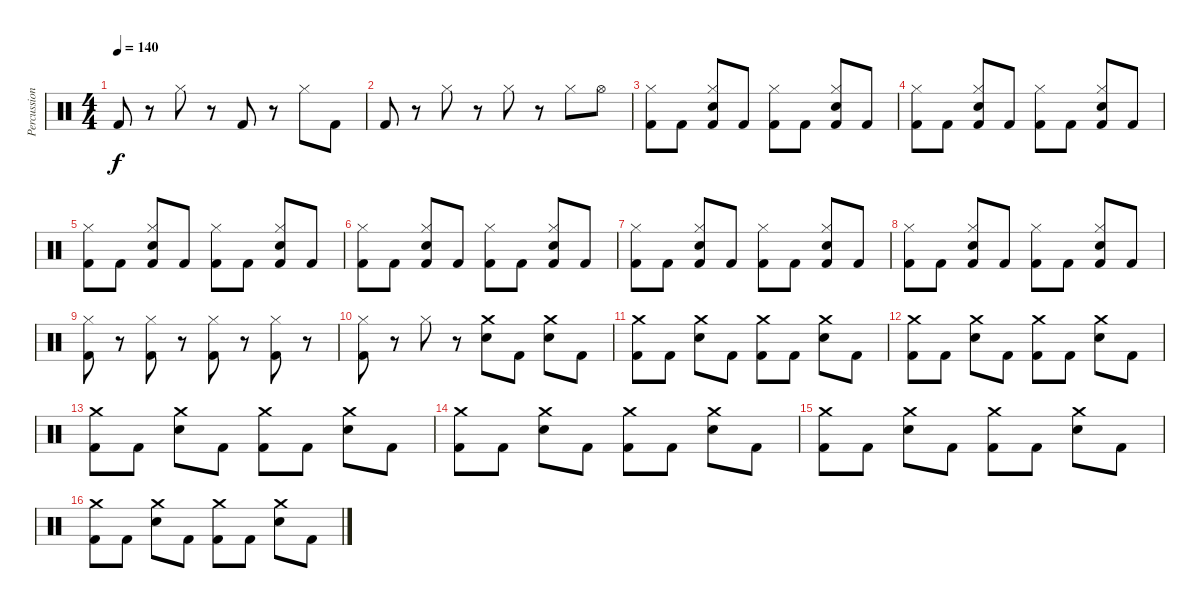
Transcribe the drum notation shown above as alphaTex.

\track ("Percussion" "Percussion") {instrument percussion}
\staff {score}
\articulation defaults
\ts (4 4)
\tempo 140
\clef neutral
\ks c "Kick (hit) 2".8{dy f}
r.8 "Hi-Hat (closed)".8 r.8 "Kick (hit) 2".8 r.8 "Hi-Hat (closed)".8 "Kick (hit) 2".8 |
"Kick (hit) 2".8 r.8 "Hi-Hat (closed)".8 r.8 "Hi-Hat (closed)".8 r.8 "Hi-Hat (closed)".8 "Hi-Hat (open)".8 |
("Hi-Hat (closed)" "Kick (hit) 2").8 "Kick (hit) 2".8 ("Hi-Hat (closed)" "Electric Snare (hit)" "Kick (hit) 2").8 "Kick (hit) 2".8 ("Hi-Hat (closed)" "Kick (hit) 2").8 "Kick (hit) 2".8 ("Hi-Hat (closed)" "Electric Snare (hit)" "Kick (hit) 2").8 "Kick (hit) 2".8 |
("Hi-Hat (closed)" "Kick (hit) 2").8 "Kick (hit) 2".8 ("Hi-Hat (closed)" "Electric Snare (hit)" "Kick (hit) 2").8 "Kick (hit) 2".8 ("Hi-Hat (closed)" "Kick (hit) 2").8 "Kick (hit) 2".8 ("Hi-Hat (closed)" "Electric Snare (hit)" "Kick (hit) 2").8 "Kick (hit) 2".8 |
("Hi-Hat (closed)" "Kick (hit) 2").8 "Kick (hit) 2".8 ("Hi-Hat (closed)" "Electric Snare (hit)" "Kick (hit) 2").8 "Kick (hit) 2".8 ("Hi-Hat (closed)" "Kick (hit) 2").8 "Kick (hit) 2".8 ("Hi-Hat (closed)" "Electric Snare (hit)" "Kick (hit) 2").8 "Kick (hit) 2".8 |
("Hi-Hat (closed)" "Kick (hit) 2").8 "Kick (hit) 2".8 ("Hi-Hat (closed)" "Electric Snare (hit)" "Kick (hit) 2").8 "Kick (hit) 2".8 ("Hi-Hat (closed)" "Kick (hit) 2").8 "Kick (hit) 2".8 ("Hi-Hat (closed)" "Electric Snare (hit)" "Kick (hit) 2").8 "Kick (hit) 2".8 |
("Hi-Hat (closed)" "Kick (hit) 2").8 "Kick (hit) 2".8 ("Hi-Hat (closed)" "Electric Snare (hit)" "Kick (hit) 2").8 "Kick (hit) 2".8 ("Hi-Hat (closed)" "Kick (hit) 2").8 "Kick (hit) 2".8 ("Hi-Hat (closed)" "Electric Snare (hit)" "Kick (hit) 2").8 "Kick (hit) 2".8 |
("Hi-Hat (closed)" "Kick (hit) 2").8 "Kick (hit) 2".8 ("Hi-Hat (closed)" "Electric Snare (hit)" "Kick (hit) 2").8 "Kick (hit) 2".8 ("Hi-Hat (closed)" "Kick (hit) 2").8 "Kick (hit) 2".8 ("Hi-Hat (closed)" "Electric Snare (hit)" "Kick (hit) 2").8 "Kick (hit) 2".8 |
("Hi-Hat (closed)" "Kick (hit) 2").8 r.8 ("Hi-Hat (closed)" "Kick (hit) 2").8 r.8 ("Hi-Hat (closed)" "Kick (hit) 2").8 r.8 ("Hi-Hat (closed)" "Kick (hit) 2").8 r.8 |
("Hi-Hat (closed)" "Kick (hit) 2").8 r.8 "Hi-Hat (closed)".8 r.8 ("Crash medium (hit)" "Electric Snare (hit)").8 "Kick (hit) 2".8 ("Crash medium (hit)" "Electric Snare (hit)").8 "Kick (hit) 2".8 |
("Crash medium (hit)" "Kick (hit) 2").8 "Kick (hit) 2".8 ("Crash medium (hit)" "Electric Snare (hit)").8 "Kick (hit) 2".8 ("Crash medium (hit)" "Kick (hit) 2").8 "Kick (hit) 2".8 ("Crash medium (hit)" "Electric Snare (hit)").8 "Kick (hit) 2".8 |
("Crash medium (hit)" "Kick (hit) 2").8 "Kick (hit) 2".8 ("Crash medium (hit)" "Electric Snare (hit)").8 "Kick (hit) 2".8 ("Crash medium (hit)" "Kick (hit) 2").8 "Kick (hit) 2".8 ("Crash medium (hit)" "Electric Snare (hit)").8 "Kick (hit) 2".8 |
("Crash medium (hit)" "Kick (hit) 2").8 "Kick (hit) 2".8 ("Crash medium (hit)" "Electric Snare (hit)").8 "Kick (hit) 2".8 ("Crash medium (hit)" "Kick (hit) 2").8 "Kick (hit) 2".8 ("Crash medium (hit)" "Electric Snare (hit)").8 "Kick (hit) 2".8 |
("Crash medium (hit)" "Kick (hit) 2").8 "Kick (hit) 2".8 ("Crash medium (hit)" "Electric Snare (hit)").8 "Kick (hit) 2".8 ("Crash medium (hit)" "Kick (hit) 2").8 "Kick (hit) 2".8 ("Crash medium (hit)" "Electric Snare (hit)").8 "Kick (hit) 2".8 |
("Crash medium (hit)" "Kick (hit) 2").8 "Kick (hit) 2".8 ("Crash medium (hit)" "Electric Snare (hit)").8 "Kick (hit) 2".8 ("Crash medium (hit)" "Kick (hit) 2").8 "Kick (hit) 2".8 ("Crash medium (hit)" "Electric Snare (hit)").8 "Kick (hit) 2".8 |
("Crash medium (hit)" "Kick (hit) 2").8 "Kick (hit) 2".8 ("Crash medium (hit)" "Electric Snare (hit)").8 "Kick (hit) 2".8 ("Crash medium (hit)" "Kick (hit) 2").8 "Kick (hit) 2".8 ("Crash medium (hit)" "Electric Snare (hit)").8 "Kick (hit) 2".8
